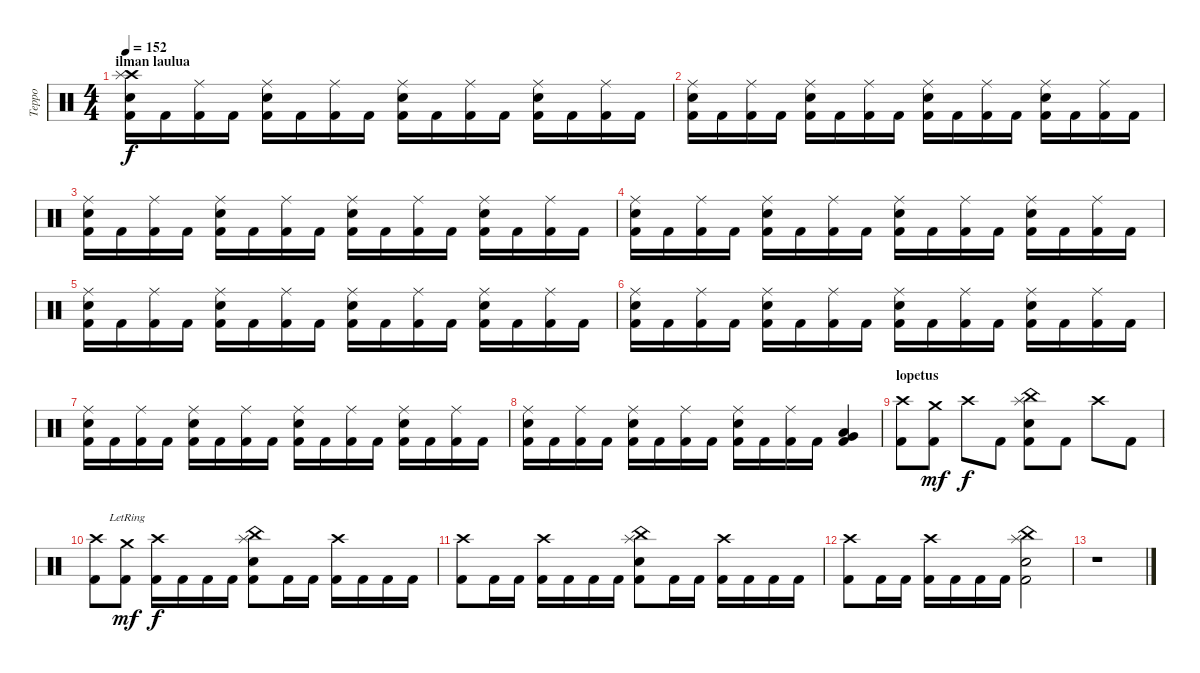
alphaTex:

\track ("Teppo" "Teppo") {instrument percussion}
\staff {score}
\articulation defaults
\ts (4 4)
\section ("" "ilman laulua")
\tempo 152
\clef neutral
\ks c
("Crash high (hit)" "Splash (hit)" "Electric Snare (hit)" "Kick (hit) 2").16{dy f} "Kick (hit) 2".16 ("Ride (middle)" "Kick (hit) 2").16 "Kick (hit) 2".16 ("Ride (middle)" "Electric Snare (hit)" "Kick (hit) 2").16 "Kick (hit) 2".16 ("Ride (middle)" "Kick (hit) 2").16 "Kick (hit) 2".16 ("Ride (middle)" "Electric Snare (hit)" "Kick (hit) 2").16 "Kick (hit) 2".16 ("Ride (middle)" "Kick (hit) 2").16 "Kick (hit) 2".16 ("Ride (middle)" "Electric Snare (hit)" "Kick (hit) 2").16 "Kick (hit) 2".16 ("Ride (middle)" "Kick (hit) 2").16 "Kick (hit) 2".16 |
("Ride (middle)" "Electric Snare (hit)" "Kick (hit) 2").16 "Kick (hit) 2".16 ("Ride (middle)" "Kick (hit) 2").16 "Kick (hit) 2".16 ("Ride (middle)" "Electric Snare (hit)" "Kick (hit) 2").16 "Kick (hit) 2".16 ("Ride (middle)" "Kick (hit) 2").16 "Kick (hit) 2".16 ("Ride (middle)" "Electric Snare (hit)" "Kick (hit) 2").16 "Kick (hit) 2".16 ("Ride (middle)" "Kick (hit) 2").16 "Kick (hit) 2".16 ("Ride (middle)" "Electric Snare (hit)" "Kick (hit) 2").16 "Kick (hit) 2".16 ("Ride (middle)" "Kick (hit) 2").16 "Kick (hit) 2".16 |
("Ride (middle)" "Electric Snare (hit)" "Kick (hit) 2").16 "Kick (hit) 2".16 ("Ride (middle)" "Kick (hit) 2").16 "Kick (hit) 2".16 ("Ride (middle)" "Electric Snare (hit)" "Kick (hit) 2").16 "Kick (hit) 2".16 ("Ride (middle)" "Kick (hit) 2").16 "Kick (hit) 2".16 ("Ride (middle)" "Electric Snare (hit)" "Kick (hit) 2").16 "Kick (hit) 2".16 ("Ride (middle)" "Kick (hit) 2").16 "Kick (hit) 2".16 ("Ride (middle)" "Electric Snare (hit)" "Kick (hit) 2").16 "Kick (hit) 2".16 ("Ride (middle)" "Kick (hit) 2").16 "Kick (hit) 2".16 |
("Ride (middle)" "Electric Snare (hit)" "Kick (hit) 2").16 "Kick (hit) 2".16 ("Ride (middle)" "Kick (hit) 2").16 "Kick (hit) 2".16 ("Ride (middle)" "Electric Snare (hit)" "Kick (hit) 2").16 "Kick (hit) 2".16 ("Ride (middle)" "Kick (hit) 2").16 "Kick (hit) 2".16 ("Ride (middle)" "Electric Snare (hit)" "Kick (hit) 2").16 "Kick (hit) 2".16 ("Ride (middle)" "Kick (hit) 2").16 "Kick (hit) 2".16 ("Ride (middle)" "Electric Snare (hit)" "Kick (hit) 2").16 "Kick (hit) 2".16 ("Ride (middle)" "Kick (hit) 2").16 "Kick (hit) 2".16 |
("Ride (middle)" "Electric Snare (hit)" "Kick (hit) 2").16 "Kick (hit) 2".16 ("Ride (middle)" "Kick (hit) 2").16 "Kick (hit) 2".16 ("Ride (middle)" "Electric Snare (hit)" "Kick (hit) 2").16 "Kick (hit) 2".16 ("Ride (middle)" "Kick (hit) 2").16 "Kick (hit) 2".16 ("Ride (middle)" "Electric Snare (hit)" "Kick (hit) 2").16 "Kick (hit) 2".16 ("Ride (middle)" "Kick (hit) 2").16 "Kick (hit) 2".16 ("Ride (middle)" "Electric Snare (hit)" "Kick (hit) 2").16 "Kick (hit) 2".16 ("Ride (middle)" "Kick (hit) 2").16 "Kick (hit) 2".16 |
("Ride (middle)" "Electric Snare (hit)" "Kick (hit) 2").16 "Kick (hit) 2".16 ("Ride (middle)" "Kick (hit) 2").16 "Kick (hit) 2".16 ("Ride (middle)" "Electric Snare (hit)" "Kick (hit) 2").16 "Kick (hit) 2".16 ("Ride (middle)" "Kick (hit) 2").16 "Kick (hit) 2".16 ("Ride (middle)" "Electric Snare (hit)" "Kick (hit) 2").16 "Kick (hit) 2".16 ("Ride (middle)" "Kick (hit) 2").16 "Kick (hit) 2".16 ("Ride (middle)" "Electric Snare (hit)" "Kick (hit) 2").16 "Kick (hit) 2".16 ("Ride (middle)" "Kick (hit) 2").16 "Kick (hit) 2".16 |
("Ride (middle)" "Electric Snare (hit)" "Kick (hit) 2").16 "Kick (hit) 2".16 ("Ride (middle)" "Kick (hit) 2").16 "Kick (hit) 2".16 ("Ride (middle)" "Electric Snare (hit)" "Kick (hit) 2").16 "Kick (hit) 2".16 ("Ride (middle)" "Kick (hit) 2").16 "Kick (hit) 2".16 ("Ride (middle)" "Electric Snare (hit)" "Kick (hit) 2").16 "Kick (hit) 2".16 ("Ride (middle)" "Kick (hit) 2").16 "Kick (hit) 2".16 ("Ride (middle)" "Electric Snare (hit)" "Kick (hit) 2").16 "Kick (hit) 2".16 ("Ride (middle)" "Kick (hit) 2").16 "Kick (hit) 2".16 |
("Ride (middle)" "Electric Snare (hit)" "Kick (hit) 2").16 "Kick (hit) 2".16 ("Ride (middle)" "Kick (hit) 2").16 "Kick (hit) 2".16 ("Ride (middle)" "Electric Snare (hit)" "Kick (hit) 2").16 "Kick (hit) 2".16 ("Ride (middle)" "Kick (hit) 2").16 "Kick (hit) 2".16 ("Ride (middle)" "Electric Snare (hit)" "Kick (hit) 2").16 "Kick (hit) 2".16 ("Ride (middle)" "Kick (hit) 2").16 "Kick (hit) 2".16 ("Low Tom (hit)" "Very Low Tom (hit)" "Kick (hit) 2").4 |
\section ("" "lopetus")
("Crash high (hit)" "Kick (hit) 2").8 ("Crash medium (hit)" "Kick (hit) 2").8{dy mf} "Crash high (hit)".8{dy f} "Kick (hit) 2".8 ("China (hit)" "Splash (hit)" "Electric Snare (hit)" "Kick (hit) 2").8 "Kick (hit) 2".8 "Crash high (hit)".8 "Kick (hit) 2".8 |
("Crash high (hit)" "Kick (hit) 2").8 ("Crash medium (hit)"{lr} "Kick (hit) 2").8{dy mf} ("Crash high (hit)" "Kick (hit) 2").16{dy f} "Kick (hit) 2".16 "Kick (hit) 2".16 "Kick (hit) 2".16 ("China (hit)" "Splash (hit)" "Electric Snare (hit)" "Kick (hit) 2").8 "Kick (hit) 2".16 "Kick (hit) 2".16 ("Crash high (hit)" "Kick (hit) 2").16 "Kick (hit) 2".16 "Kick (hit) 2".16 "Kick (hit) 2".16 |
("Crash high (hit)" "Kick (hit) 2").8 "Kick (hit) 2".16 "Kick (hit) 2".16 ("Crash high (hit)" "Kick (hit) 2").16 "Kick (hit) 2".16 "Kick (hit) 2".16 "Kick (hit) 2".16 ("China (hit)" "Splash (hit)" "Electric Snare (hit)" "Kick (hit) 2").8 "Kick (hit) 2".16 "Kick (hit) 2".16 ("Crash high (hit)" "Kick (hit) 2").16 "Kick (hit) 2".16 "Kick (hit) 2".16 "Kick (hit) 2".16 |
("Crash high (hit)" "Kick (hit) 2").8 "Kick (hit) 2".16 "Kick (hit) 2".16 ("Crash high (hit)" "Kick (hit) 2").16 "Kick (hit) 2".16 "Kick (hit) 2".16 "Kick (hit) 2".16 ("China (hit)" "Splash (hit)" "Electric Snare (hit)" "Kick (hit) 2").2 |
r.1
